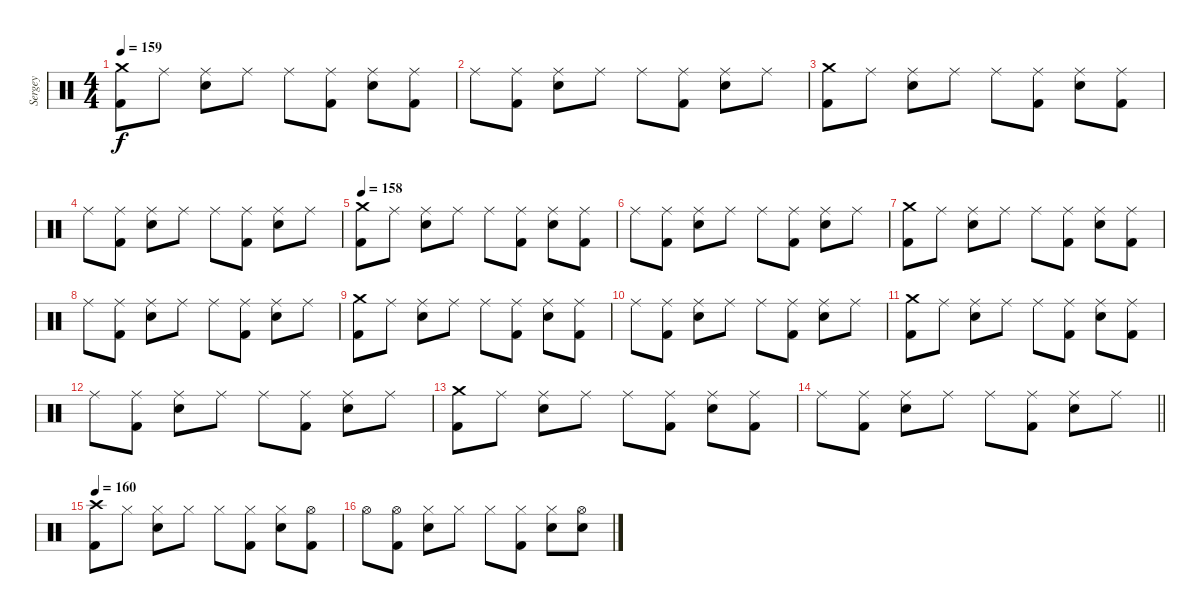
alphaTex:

\track ("Sergey" "Sergey") {instrument percussion}
\staff {score}
\articulation defaults
\ts (4 4)
\section ("" "")
\tempo 159
\clef neutral
\ks c
("Crash medium (hit)" "Kick (hit) 2").8{dy f} "Ride (middle)".8 ("Ride (middle)" "Electric Snare (hit)").8 "Ride (middle)".8 "Ride (middle)".8 ("Ride (middle)" "Kick (hit) 2").8 ("Ride (middle)" "Electric Snare (hit)").8 ("Ride (middle)" "Kick (hit) 2").8 |
"Ride (middle)".8 ("Ride (middle)" "Kick (hit) 2").8 ("Ride (middle)" "Electric Snare (hit)").8 "Ride (middle)".8 "Ride (middle)".8 ("Ride (middle)" "Kick (hit) 2").8 ("Ride (middle)" "Electric Snare (hit)").8 "Ride (middle)".8 |
("Crash medium (hit)" "Kick (hit) 2").8 "Ride (middle)".8 ("Ride (middle)" "Electric Snare (hit)").8 "Ride (middle)".8 "Ride (middle)".8 ("Ride (middle)" "Kick (hit) 2").8 ("Ride (middle)" "Electric Snare (hit)").8 ("Ride (middle)" "Kick (hit) 2").8 |
"Ride (middle)".8 ("Ride (middle)" "Kick (hit) 2").8 ("Ride (middle)" "Electric Snare (hit)").8 "Ride (middle)".8 "Ride (middle)".8 ("Ride (middle)" "Kick (hit) 2").8 ("Ride (middle)" "Electric Snare (hit)").8 "Ride (middle)".8 |
\tempo 158
("Crash medium (hit)" "Kick (hit) 2").8 "Ride (middle)".8 ("Ride (middle)" "Electric Snare (hit)").8 "Ride (middle)".8 "Ride (middle)".8 ("Ride (middle)" "Kick (hit) 2").8 ("Ride (middle)" "Electric Snare (hit)").8 ("Ride (middle)" "Kick (hit) 2").8 |
"Ride (middle)".8 ("Ride (middle)" "Kick (hit) 2").8 ("Ride (middle)" "Electric Snare (hit)").8 "Ride (middle)".8 "Ride (middle)".8 ("Ride (middle)" "Kick (hit) 2").8 ("Ride (middle)" "Electric Snare (hit)").8 "Ride (middle)".8 |
("Crash medium (hit)" "Kick (hit) 2").8 "Ride (middle)".8 ("Ride (middle)" "Electric Snare (hit)").8 "Ride (middle)".8 "Ride (middle)".8 ("Ride (middle)" "Kick (hit) 2").8 ("Ride (middle)" "Electric Snare (hit)").8 ("Ride (middle)" "Kick (hit) 2").8 |
"Ride (middle)".8 ("Ride (middle)" "Kick (hit) 2").8 ("Ride (middle)" "Electric Snare (hit)").8 "Ride (middle)".8 "Ride (middle)".8 ("Ride (middle)" "Kick (hit) 2").8 ("Ride (middle)" "Electric Snare (hit)").8 "Ride (middle)".8 |
("Crash medium (hit)" "Kick (hit) 2").8 "Ride (middle)".8 ("Ride (middle)" "Electric Snare (hit)").8 "Ride (middle)".8 "Ride (middle)".8 ("Ride (middle)" "Kick (hit) 2").8 ("Ride (middle)" "Electric Snare (hit)").8 ("Ride (middle)" "Kick (hit) 2").8 |
"Ride (middle)".8 ("Ride (middle)" "Kick (hit) 2").8 ("Ride (middle)" "Electric Snare (hit)").8 "Ride (middle)".8 "Ride (middle)".8 ("Ride (middle)" "Kick (hit) 2").8 ("Ride (middle)" "Electric Snare (hit)").8 "Ride (middle)".8 |
("Crash medium (hit)" "Kick (hit) 2").8 "Ride (middle)".8 ("Ride (middle)" "Electric Snare (hit)").8 "Ride (middle)".8 "Ride (middle)".8 ("Ride (middle)" "Kick (hit) 2").8 ("Ride (middle)" "Electric Snare (hit)").8 ("Ride (middle)" "Kick (hit) 2").8 |
"Ride (middle)".8 ("Ride (middle)" "Kick (hit) 2").8 ("Ride (middle)" "Electric Snare (hit)").8 "Ride (middle)".8 "Ride (middle)".8 ("Ride (middle)" "Kick (hit) 2").8 ("Ride (middle)" "Electric Snare (hit)").8 "Ride (middle)".8 |
("Crash medium (hit)" "Kick (hit) 2").8 "Ride (middle)".8 ("Ride (middle)" "Electric Snare (hit)").8 "Ride (middle)".8 "Ride (middle)".8 ("Ride (middle)" "Kick (hit) 2").8 ("Ride (middle)" "Electric Snare (hit)").8 ("Ride (middle)" "Kick (hit) 2").8 |
\barLineRight lightlight "Ride (middle)".8
("Ride (middle)" "Kick (hit) 2").8 ("Ride (middle)" "Electric Snare (hit)").8 "Ride (middle)".8 "Ride (middle)".8 ("Ride (middle)" "Kick (hit) 2").8 ("Ride (middle)" "Electric Snare (hit)").8 "Ride (middle)".8 |
\section ("" "")
\tempo 160
("Crash high (hit)" "Kick (hit) 2").8 "Hi-Hat (closed)".8 ("Hi-Hat (closed)" "Electric Snare (hit)").8 "Hi-Hat (closed)".8 "Hi-Hat (closed)".8 ("Hi-Hat (closed)" "Kick (hit) 2").8 ("Hi-Hat (closed)" "Electric Snare (hit)").8 ("Hi-Hat (open)" "Kick (hit) 2").8 |
"Hi-Hat (open)".8 ("Hi-Hat (open)" "Kick (hit) 2").8 ("Hi-Hat (closed)" "Electric Snare (hit)").8 "Hi-Hat (closed)".8 "Hi-Hat (closed)".8 ("Hi-Hat (closed)" "Kick (hit) 2").8 ("Hi-Hat (closed)" "Electric Snare (hit)").8 ("Hi-Hat (open)" "Electric Snare (hit)").8
